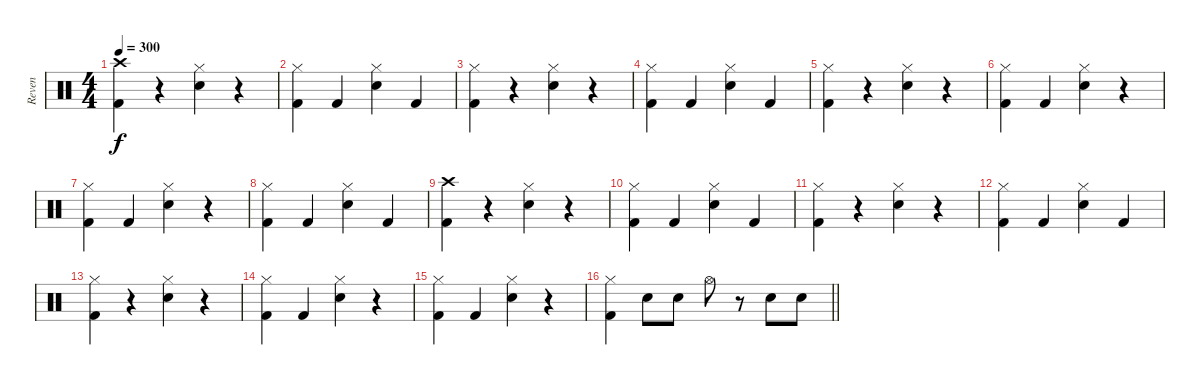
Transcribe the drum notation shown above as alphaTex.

\track ("Reven" "Reven") {instrument percussion}
\staff {score}
\articulation defaults
\ts (4 4)
\tempo 300
\clef neutral
\ks c
("Crash high (hit)" "Kick (hit) 2").4{dy f} r.4 ("Hi-Hat (closed)" "Electric Snare (hit)").4 r.4 |
("Hi-Hat (closed)" "Kick (hit) 2").4 "Kick (hit) 2".4 ("Hi-Hat (closed)" "Electric Snare (hit)").4 "Kick (hit) 2".4 |
("Hi-Hat (closed)" "Kick (hit) 2").4 r.4 ("Hi-Hat (closed)" "Electric Snare (hit)").4 r.4 |
("Hi-Hat (closed)" "Kick (hit) 2").4 "Kick (hit) 2".4 ("Hi-Hat (closed)" "Electric Snare (hit)").4 "Kick (hit) 2".4 |
("Hi-Hat (closed)" "Kick (hit) 2").4 r.4 ("Hi-Hat (closed)" "Electric Snare (hit)").4 r.4 |
("Hi-Hat (closed)" "Kick (hit) 2").4 "Kick (hit) 2".4 ("Hi-Hat (closed)" "Electric Snare (hit)").4 r.4 |
("Hi-Hat (closed)" "Kick (hit) 2").4 "Kick (hit) 2".4 ("Hi-Hat (closed)" "Electric Snare (hit)").4 r.4 |
("Hi-Hat (closed)" "Kick (hit) 2").4 "Kick (hit) 2".4 ("Hi-Hat (closed)" "Electric Snare (hit)").4 "Kick (hit) 2".4 |
("Crash high (hit)" "Kick (hit) 2").4 r.4 ("Hi-Hat (closed)" "Electric Snare (hit)").4 r.4 |
("Hi-Hat (closed)" "Kick (hit) 2").4 "Kick (hit) 2".4 ("Hi-Hat (closed)" "Electric Snare (hit)").4 "Kick (hit) 2".4 |
("Hi-Hat (closed)" "Kick (hit) 2").4 r.4 ("Hi-Hat (closed)" "Electric Snare (hit)").4 r.4 |
("Hi-Hat (closed)" "Kick (hit) 2").4 "Kick (hit) 2".4 ("Hi-Hat (closed)" "Electric Snare (hit)").4 "Kick (hit) 2".4 |
("Hi-Hat (closed)" "Kick (hit) 2").4 r.4 ("Hi-Hat (closed)" "Electric Snare (hit)").4 r.4 |
("Hi-Hat (closed)" "Kick (hit) 2").4 "Kick (hit) 2".4 ("Hi-Hat (closed)" "Electric Snare (hit)").4 r.4 |
("Hi-Hat (closed)" "Kick (hit) 2").4 "Kick (hit) 2".4 ("Hi-Hat (closed)" "Electric Snare (hit)").4 r.4 |
\barLineRight lightlight
("Hi-Hat (closed)" "Kick (hit) 2").4 "Electric Snare (hit)".8 "Electric Snare (hit)".8 "Hi-Hat (open)".8 r.8 "Electric Snare (hit)".8 "Electric Snare (hit)".8
